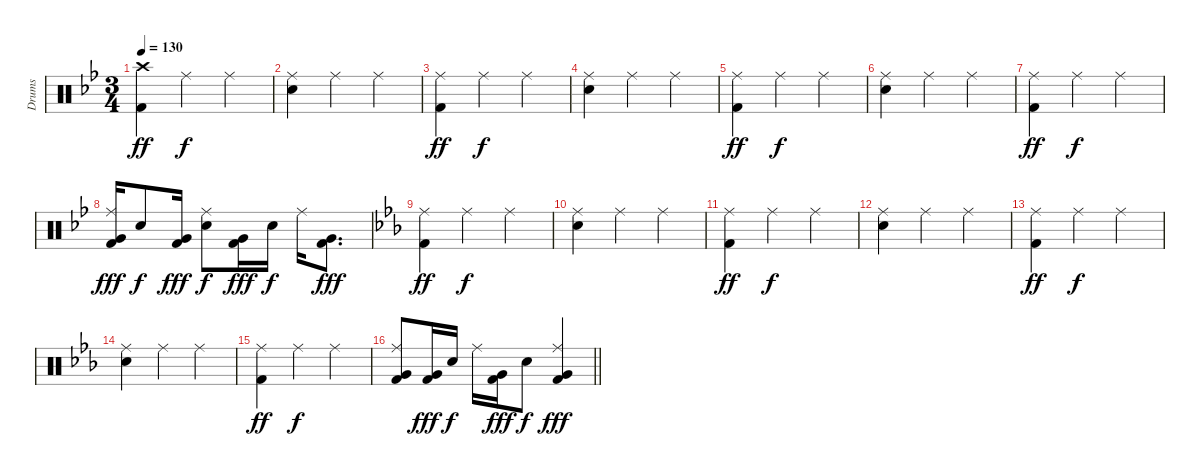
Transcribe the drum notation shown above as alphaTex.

\track ("Drums" "Drums") {instrument percussion}
\staff {score}
\articulation defaults
\ts (3 4)
\section ("" "")
\tempo 130
\clef neutral
\ks bb
("Crash high (hit)" "Kick (hit) 2").4{dy ff} "Ride (middle)".4{dy f} "Ride (middle)".4 |
("Ride (middle)" "Electric Snare (hit)").4 "Ride (middle)".4 "Ride (middle)".4 |
("Ride (middle)" "Kick (hit) 2").4{dy ff} "Ride (middle)".4{dy f} "Ride (middle)".4 |
("Ride (middle)" "Electric Snare (hit)").4 "Ride (middle)".4 "Ride (middle)".4 |
("Ride (middle)" "Kick (hit) 2").4{dy ff} "Ride (middle)".4{dy f} "Ride (middle)".4 |
("Ride (middle)" "Electric Snare (hit)").4 "Ride (middle)".4 "Ride (middle)".4 |
("Ride (middle)" "Kick (hit) 2").4{dy ff} "Ride (middle)".4{dy f} "Ride (middle)".4 |
("Ride (middle)" "Very Low Tom (hit)" "Kick (hit) 2").16{dy fff} "Electric Snare (hit)".8{dy f} ("Very Low Tom (hit)" "Kick (hit) 2").16{dy fff} ("Ride (middle)" "Electric Snare (hit)").8{dy f} ("Very Low Tom (hit)" "Kick (hit) 2").16{dy fff} "Electric Snare (hit)".16{dy f} "Ride (middle)".16 ("Very Low Tom (hit)" "Kick (hit) 2").8{d dy fff} |
\ks eb
("Ride (middle)" "Kick (hit) 2").4{dy ff} "Ride (middle)".4{dy f} "Ride (middle)".4 |
("Ride (middle)" "Electric Snare (hit)").4 "Ride (middle)".4 "Ride (middle)".4 |
("Ride (middle)" "Kick (hit) 2").4{dy ff} "Ride (middle)".4{dy f} "Ride (middle)".4 |
("Ride (middle)" "Electric Snare (hit)").4 "Ride (middle)".4 "Ride (middle)".4 |
("Ride (middle)" "Kick (hit) 2").4{dy ff} "Ride (middle)".4{dy f} "Ride (middle)".4 |
("Ride (middle)" "Electric Snare (hit)").4 "Ride (middle)".4 "Ride (middle)".4 |
("Ride (middle)" "Kick (hit) 2").4{dy ff} "Ride (middle)".4{dy f} "Ride (middle)".4 |
\barLineRight lightlight
("Ride (middle)" "Very Low Tom (hit)" "Kick (hit) 2").8 ("Very Low Tom (hit)" "Kick (hit) 2").16{dy fff} "Electric Snare (hit)".16{dy f} "Ride (middle)".16 ("Very Low Tom (hit)" "Kick (hit) 2").16{dy fff} "Electric Snare (hit)".8{dy f} ("Ride (middle)" "Very Low Tom (hit)" "Kick (hit) 2").4{dy fff}
